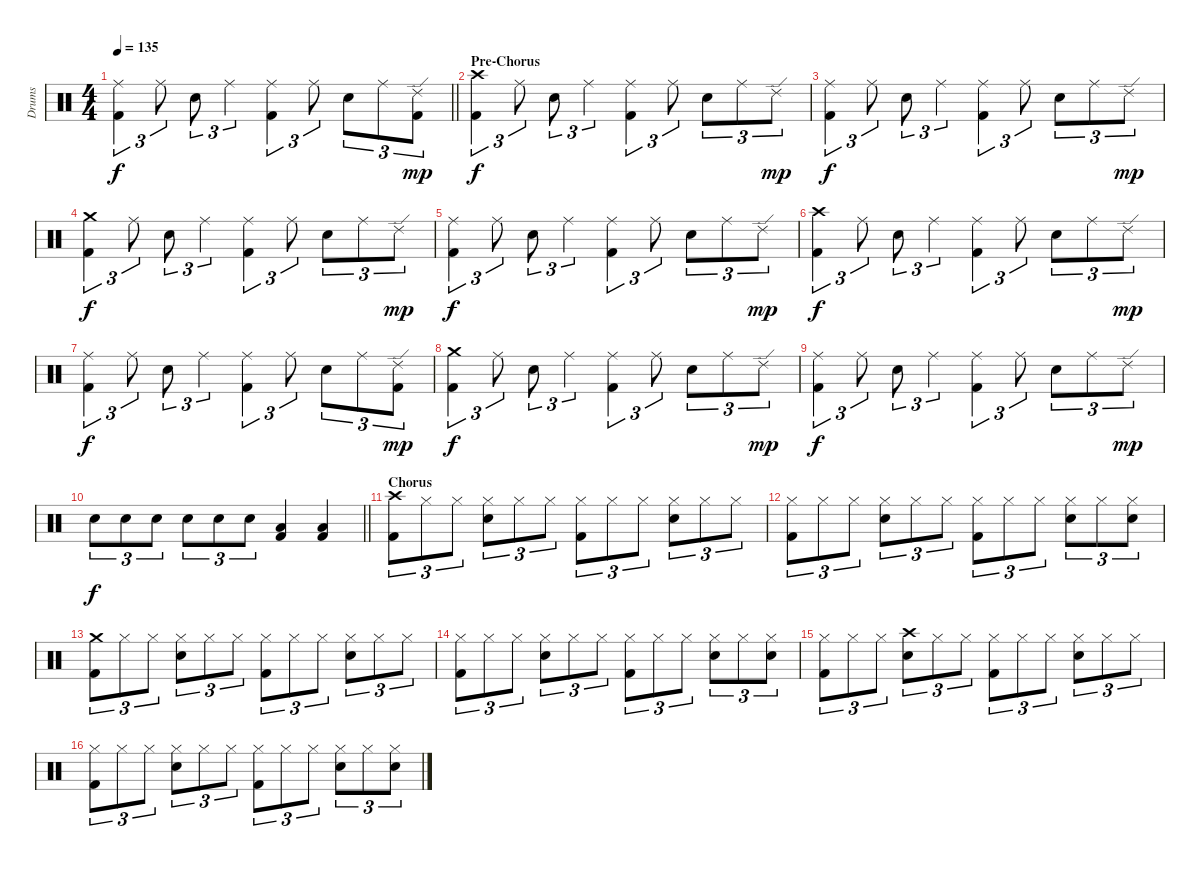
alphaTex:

\track ("Drums" "Drums") {instrument percussion}
\staff {score}
\articulation defaults
\ts (4 4)
\tempo 135
\clef neutral
\barLineRight lightlight
\ks c
("Ride (middle)" "Kick (hit) 2").4{tu (3 2) dy f} "Ride (middle)".8{tu (3 2)} "Snare (hit) 2".8{tu (3 2)} "Ride (middle)".4{tu (3 2)} ("Ride (middle)" "Kick (hit) 2").4{tu (3 2)} "Ride (middle)".8{tu (3 2)} "Snare (hit) 2".8{tu (3 2)} "Ride (middle)".8{tu (3 2)} ("Ride (edge) 2" "Kick (hit) 2").8{tu (3 2) dy mp} |
\section ("" "Pre-Chorus")
("Crash high (hit)" "Kick (hit) 2").4{tu (3 2) dy f} "Ride (middle)".8{tu (3 2)} "Snare (hit) 2".8{tu (3 2)} "Ride (middle)".4{tu (3 2)} ("Ride (middle)" "Kick (hit) 2").4{tu (3 2)} "Ride (middle)".8{tu (3 2)} "Snare (hit) 2".8{tu (3 2)} "Ride (middle)".8{tu (3 2)} "Ride (edge) 2".8{tu (3 2) dy mp} |
("Ride (middle)" "Kick (hit) 2").4{tu (3 2) dy f} "Ride (middle)".8{tu (3 2)} "Snare (hit) 2".8{tu (3 2)} "Ride (middle)".4{tu (3 2)} ("Ride (middle)" "Kick (hit) 2").4{tu (3 2)} "Ride (middle)".8{tu (3 2)} "Snare (hit) 2".8{tu (3 2)} "Ride (middle)".8{tu (3 2)} "Ride (edge) 2".8{tu (3 2) dy mp} |
("Crash medium (hit)" "Kick (hit) 2").4{tu (3 2) dy f} "Ride (middle)".8{tu (3 2)} "Snare (hit) 2".8{tu (3 2)} "Ride (middle)".4{tu (3 2)} ("Ride (middle)" "Kick (hit) 2").4{tu (3 2)} "Ride (middle)".8{tu (3 2)} "Snare (hit) 2".8{tu (3 2)} "Ride (middle)".8{tu (3 2)} "Ride (edge) 2".8{tu (3 2) dy mp} |
("Ride (middle)" "Kick (hit) 2").4{tu (3 2) dy f} "Ride (middle)".8{tu (3 2)} "Snare (hit) 2".8{tu (3 2)} "Ride (middle)".4{tu (3 2)} ("Ride (middle)" "Kick (hit) 2").4{tu (3 2)} "Ride (middle)".8{tu (3 2)} "Snare (hit) 2".8{tu (3 2)} "Ride (middle)".8{tu (3 2)} "Ride (edge) 2".8{tu (3 2) dy mp} |
("Crash high (hit)" "Kick (hit) 2").4{tu (3 2) dy f} "Ride (middle)".8{tu (3 2)} "Snare (hit) 2".8{tu (3 2)} "Ride (middle)".4{tu (3 2)} ("Ride (middle)" "Kick (hit) 2").4{tu (3 2)} "Ride (middle)".8{tu (3 2)} "Snare (hit) 2".8{tu (3 2)} "Ride (middle)".8{tu (3 2)} "Ride (edge) 2".8{tu (3 2) dy mp} |
("Ride (middle)" "Kick (hit) 2").4{tu (3 2) dy f} "Ride (middle)".8{tu (3 2)} "Snare (hit) 2".8{tu (3 2)} "Ride (middle)".4{tu (3 2)} ("Ride (middle)" "Kick (hit) 2").4{tu (3 2)} "Ride (middle)".8{tu (3 2)} "Snare (hit) 2".8{tu (3 2)} "Ride (middle)".8{tu (3 2)} ("Ride (edge) 2" "Kick (hit) 2").8{tu (3 2) dy mp} |
("Crash medium (hit)" "Kick (hit) 2").4{tu (3 2) dy f} "Ride (middle)".8{tu (3 2)} "Snare (hit) 2".8{tu (3 2)} "Ride (middle)".4{tu (3 2)} ("Ride (middle)" "Kick (hit) 2").4{tu (3 2)} "Ride (middle)".8{tu (3 2)} "Snare (hit) 2".8{tu (3 2)} "Ride (middle)".8{tu (3 2)} "Ride (edge) 2".8{tu (3 2) dy mp} |
("Ride (middle)" "Kick (hit) 2").4{tu (3 2) dy f} "Ride (middle)".8{tu (3 2)} "Snare (hit) 2".8{tu (3 2)} "Ride (middle)".4{tu (3 2)} ("Ride (middle)" "Kick (hit) 2").4{tu (3 2)} "Ride (middle)".8{tu (3 2)} "Snare (hit) 2".8{tu (3 2)} "Ride (middle)".8{tu (3 2)} "Ride (edge) 2".8{tu (3 2) dy mp} |
\barLineRight lightlight "Snare (hit) 2".8{tu (3 2) dy f} "Snare (hit) 2".8{tu (3 2)} "Snare (hit) 2".8{tu (3 2)} "Snare (hit) 2".8{tu (3 2)} "Snare (hit) 2".8{tu (3 2)} "Snare (hit) 2".8{tu (3 2)}
("Low Tom (hit)" "Kick (hit) 2").4 ("Low Tom (hit)" "Kick (hit) 2").4 |
\section ("" "Chorus")
("Crash high (hit)" "Kick (hit) 2").8{tu (3 2)} "Hi-Hat (closed)".8{tu (3 2)} "Hi-Hat (closed)".8{tu (3 2)} ("Hi-Hat (closed)" "Snare (hit) 2").8{tu (3 2)} "Hi-Hat (closed)".8{tu (3 2)} "Hi-Hat (closed)".8{tu (3 2)} ("Hi-Hat (closed)" "Kick (hit) 2").8{tu (3 2)} "Hi-Hat (closed)".8{tu (3 2)} "Hi-Hat (closed)".8{tu (3 2)} ("Hi-Hat (closed)" "Snare (hit) 2").8{tu (3 2)} "Hi-Hat (closed)".8{tu (3 2)} "Hi-Hat (closed)".8{tu (3 2)} |
("Hi-Hat (closed)" "Kick (hit) 2").8{tu (3 2)} "Hi-Hat (closed)".8{tu (3 2)} "Hi-Hat (closed)".8{tu (3 2)} ("Hi-Hat (closed)" "Snare (hit) 2").8{tu (3 2)} "Hi-Hat (closed)".8{tu (3 2)} "Hi-Hat (closed)".8{tu (3 2)} ("Hi-Hat (closed)" "Kick (hit) 2").8{tu (3 2)} "Hi-Hat (closed)".8{tu (3 2)} "Hi-Hat (closed)".8{tu (3 2)} ("Hi-Hat (closed)" "Snare (hit) 2").8{tu (3 2)} "Hi-Hat (closed)".8{tu (3 2)} ("Hi-Hat (closed)" "Snare (hit) 2").8{tu (3 2)} |
("Crash medium (hit)" "Kick (hit) 2").8{tu (3 2)} "Hi-Hat (closed)".8{tu (3 2)} "Hi-Hat (closed)".8{tu (3 2)} ("Hi-Hat (closed)" "Snare (hit) 2").8{tu (3 2)} "Hi-Hat (closed)".8{tu (3 2)} "Hi-Hat (closed)".8{tu (3 2)} ("Hi-Hat (closed)" "Kick (hit) 2").8{tu (3 2)} "Hi-Hat (closed)".8{tu (3 2)} "Hi-Hat (closed)".8{tu (3 2)} ("Hi-Hat (closed)" "Snare (hit) 2").8{tu (3 2)} "Hi-Hat (closed)".8{tu (3 2)} "Hi-Hat (closed)".8{tu (3 2)} |
("Hi-Hat (closed)" "Kick (hit) 2").8{tu (3 2)} "Hi-Hat (closed)".8{tu (3 2)} "Hi-Hat (closed)".8{tu (3 2)} ("Hi-Hat (closed)" "Snare (hit) 2").8{tu (3 2)} "Hi-Hat (closed)".8{tu (3 2)} "Hi-Hat (closed)".8{tu (3 2)} ("Hi-Hat (closed)" "Kick (hit) 2").8{tu (3 2)} "Hi-Hat (closed)".8{tu (3 2)} "Hi-Hat (closed)".8{tu (3 2)} ("Hi-Hat (closed)" "Snare (hit) 2").8{tu (3 2)} "Hi-Hat (closed)".8{tu (3 2)} ("Hi-Hat (closed)" "Snare (hit) 2").8{tu (3 2)} |
("Hi-Hat (closed)" "Kick (hit) 2").8{tu (3 2)} "Hi-Hat (closed)".8{tu (3 2)} "Hi-Hat (closed)".8{tu (3 2)} ("Crash high (hit)" "Snare (hit) 2").8{tu (3 2)} "Hi-Hat (closed)".8{tu (3 2)} "Hi-Hat (closed)".8{tu (3 2)} ("Hi-Hat (closed)" "Kick (hit) 2").8{tu (3 2)} "Hi-Hat (closed)".8{tu (3 2)} "Hi-Hat (closed)".8{tu (3 2)} ("Hi-Hat (closed)" "Snare (hit) 2").8{tu (3 2)} "Hi-Hat (closed)".8{tu (3 2)} "Hi-Hat (closed)".8{tu (3 2)} |
("Hi-Hat (closed)" "Kick (hit) 2").8{tu (3 2)} "Hi-Hat (closed)".8{tu (3 2)} "Hi-Hat (closed)".8{tu (3 2)} ("Hi-Hat (closed)" "Snare (hit) 2").8{tu (3 2)} "Hi-Hat (closed)".8{tu (3 2)} "Hi-Hat (closed)".8{tu (3 2)} ("Hi-Hat (closed)" "Kick (hit) 2").8{tu (3 2)} "Hi-Hat (closed)".8{tu (3 2)} "Hi-Hat (closed)".8{tu (3 2)} ("Hi-Hat (closed)" "Snare (hit) 2").8{tu (3 2)} "Hi-Hat (closed)".8{tu (3 2)} ("Hi-Hat (closed)" "Snare (hit) 2").8{tu (3 2)}
